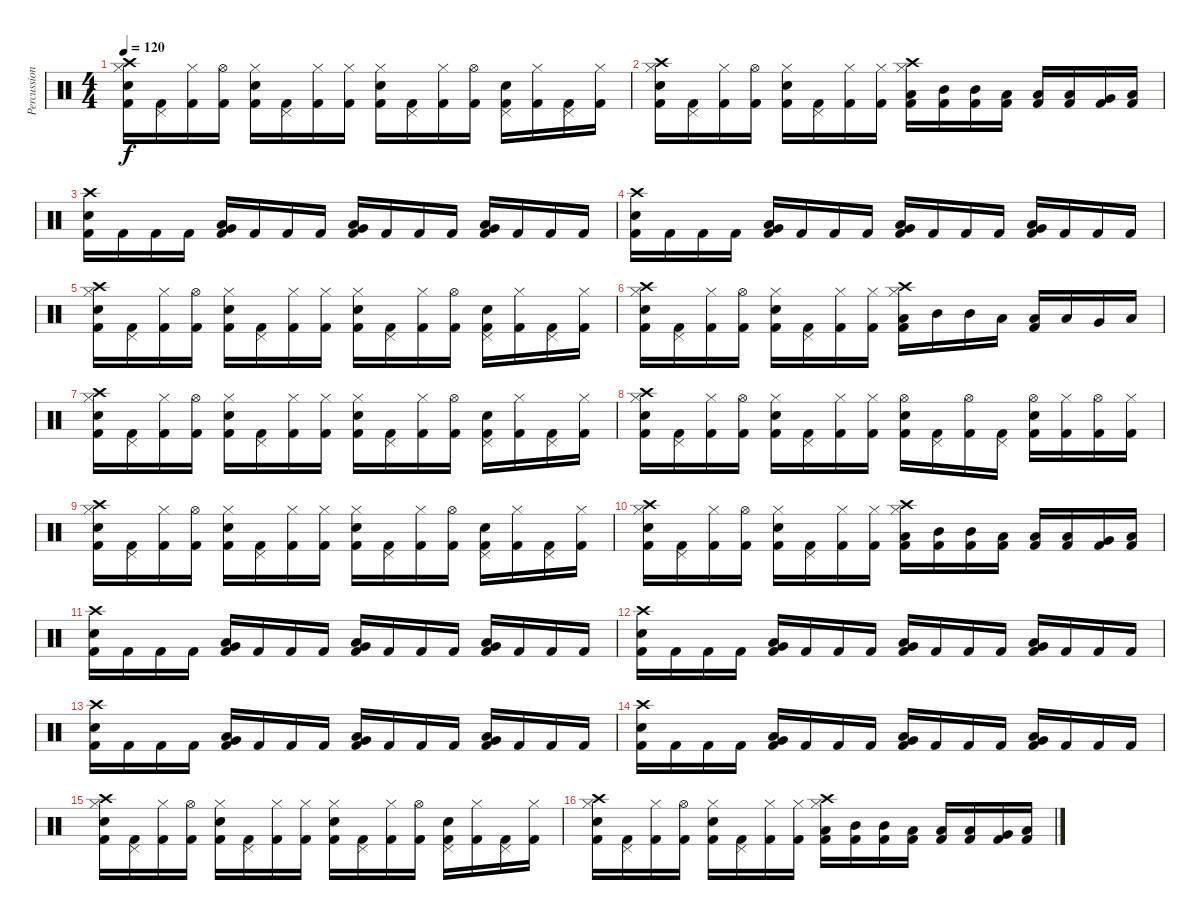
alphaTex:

\track ("Percussion" "Percussion") {instrument percussion}
\staff {score}
\articulation defaults
\ts (4 4)
\tempo 120
\clef neutral
\ks c
("Crash high (hit)" "Hi-Hat (closed)" "Snare (hit) 2" "Kick (hit) 2").16{dy f} ("Pedal Hi-Hat (hit)" "Kick (hit) 2").16 ("Hi-Hat (closed)" "Kick (hit) 2").16 ("Hi-Hat (open)" "Kick (hit) 2").16 ("Hi-Hat (closed)" "Snare (hit) 2" "Kick (hit) 2").16 ("Pedal Hi-Hat (hit)" "Kick (hit) 2").16 ("Hi-Hat (closed)" "Kick (hit) 2").16 ("Hi-Hat (closed)" "Kick (hit) 2").16 ("Hi-Hat (closed)" "Snare (hit) 2" "Kick (hit) 2").16 ("Pedal Hi-Hat (hit)" "Kick (hit) 2").16 ("Hi-Hat (closed)" "Kick (hit) 2").16 ("Hi-Hat (open)" "Kick (hit) 2").16 ("Pedal Hi-Hat (hit)" "Snare (hit) 2" "Kick (hit) 2").16 ("Hi-Hat (closed)" "Kick (hit) 2").16 ("Pedal Hi-Hat (hit)" "Kick (hit) 2").16 ("Hi-Hat (closed)" "Kick (hit) 2").16 |
("Crash high (hit)" "Hi-Hat (closed)" "Snare (hit) 2" "Kick (hit) 2").16 ("Pedal Hi-Hat (hit)" "Kick (hit) 2").16 ("Hi-Hat (closed)" "Kick (hit) 2").16 ("Hi-Hat (open)" "Kick (hit) 2").16 ("Hi-Hat (closed)" "Snare (hit) 2" "Kick (hit) 2").16 ("Pedal Hi-Hat (hit)" "Kick (hit) 2").16 ("Hi-Hat (closed)" "Kick (hit) 2").16 ("Hi-Hat (closed)" "Kick (hit) 2").16 ("Crash high (hit)" "Hi-Hat (closed)" "Low Floor Tom (hit)" "Kick (hit) 2").16 ("Mid Tom (hit)" "Kick (hit) 2").16 ("Mid Tom (hit)" "Kick (hit) 2").16 ("Low Tom (hit)" "Kick (hit) 2").16 ("Low Tom (hit)" "Kick (hit) 2").16 ("Low Floor Tom (hit)" "Kick (hit) 2").16 ("Very Low Tom (hit)" "Kick (hit) 2").16 ("Low Floor Tom (hit)" "Kick (hit) 2").16 |
("Crash high (hit)" "Snare (hit) 2" "Kick (hit) 2").16 "Kick (hit) 2".16 "Kick (hit) 2".16 "Kick (hit) 2".16 ("Low Floor Tom (hit)" "Very Low Tom (hit)" "Kick (hit) 2").16 "Kick (hit) 2".16 "Kick (hit) 2".16 "Kick (hit) 2".16 ("Low Floor Tom (hit)" "Very Low Tom (hit)" "Kick (hit) 2").16 "Kick (hit) 2".16 "Kick (hit) 2".16 "Kick (hit) 2".16 ("Low Floor Tom (hit)" "Very Low Tom (hit)" "Kick (hit) 2").16 "Kick (hit) 2".16 "Kick (hit) 2".16 "Kick (hit) 2".16 |
("Crash high (hit)" "Snare (hit) 2" "Kick (hit) 2").16 "Kick (hit) 2".16 "Kick (hit) 2".16 "Kick (hit) 2".16 ("Low Floor Tom (hit)" "Very Low Tom (hit)" "Kick (hit) 2").16 "Kick (hit) 2".16 "Kick (hit) 2".16 "Kick (hit) 2".16 ("Low Floor Tom (hit)" "Very Low Tom (hit)" "Kick (hit) 2").16 "Kick (hit) 2".16 "Kick (hit) 2".16 "Kick (hit) 2".16 ("Low Floor Tom (hit)" "Very Low Tom (hit)" "Kick (hit) 2").16 "Kick (hit) 2".16 "Kick (hit) 2".16 "Kick (hit) 2".16 |
("Crash high (hit)" "Hi-Hat (closed)" "Snare (hit) 2" "Kick (hit) 2").16 ("Pedal Hi-Hat (hit)" "Kick (hit) 2").16 ("Hi-Hat (closed)" "Kick (hit) 2").16 ("Hi-Hat (open)" "Kick (hit) 2").16 ("Hi-Hat (closed)" "Snare (hit) 2" "Kick (hit) 2").16 ("Pedal Hi-Hat (hit)" "Kick (hit) 2").16 ("Hi-Hat (closed)" "Kick (hit) 2").16 ("Hi-Hat (closed)" "Kick (hit) 2").16 ("Hi-Hat (closed)" "Snare (hit) 2" "Kick (hit) 2").16 ("Pedal Hi-Hat (hit)" "Kick (hit) 2").16 ("Hi-Hat (closed)" "Kick (hit) 2").16 ("Hi-Hat (open)" "Kick (hit) 2").16 ("Pedal Hi-Hat (hit)" "Snare (hit) 2" "Kick (hit) 2").16 ("Hi-Hat (closed)" "Kick (hit) 2").16 ("Pedal Hi-Hat (hit)" "Kick (hit) 2").16 ("Hi-Hat (closed)" "Kick (hit) 2").16 |
("Crash high (hit)" "Hi-Hat (closed)" "Snare (hit) 2" "Kick (hit) 2").16 ("Pedal Hi-Hat (hit)" "Kick (hit) 2").16 ("Hi-Hat (closed)" "Kick (hit) 2").16 ("Hi-Hat (open)" "Kick (hit) 2").16 ("Hi-Hat (closed)" "Snare (hit) 2" "Kick (hit) 2").16 ("Pedal Hi-Hat (hit)" "Kick (hit) 2").16 ("Hi-Hat (closed)" "Kick (hit) 2").16 ("Hi-Hat (closed)" "Kick (hit) 2").16 ("Crash high (hit)" "Hi-Hat (closed)" "Low Floor Tom (hit)" "Kick (hit) 2").16 "Mid Tom (hit)".16 "Mid Tom (hit)".16 "Low Tom (hit)".16 ("Low Tom (hit)" "Kick (hit) 2").16 "Low Floor Tom (hit)".16 "Very Low Tom (hit)".16 "Low Floor Tom (hit)".16 |
("Crash high (hit)" "Hi-Hat (closed)" "Snare (hit) 2" "Kick (hit) 2").16 ("Pedal Hi-Hat (hit)" "Kick (hit) 2").16 ("Hi-Hat (closed)" "Kick (hit) 2").16 ("Hi-Hat (open)" "Kick (hit) 2").16 ("Hi-Hat (closed)" "Snare (hit) 2" "Kick (hit) 2").16 ("Pedal Hi-Hat (hit)" "Kick (hit) 2").16 ("Hi-Hat (closed)" "Kick (hit) 2").16 ("Hi-Hat (closed)" "Kick (hit) 2").16 ("Hi-Hat (closed)" "Snare (hit) 2" "Kick (hit) 2").16 ("Pedal Hi-Hat (hit)" "Kick (hit) 2").16 ("Hi-Hat (closed)" "Kick (hit) 2").16 ("Hi-Hat (open)" "Kick (hit) 2").16 ("Pedal Hi-Hat (hit)" "Snare (hit) 2" "Kick (hit) 2").16 ("Hi-Hat (closed)" "Kick (hit) 2").16 ("Pedal Hi-Hat (hit)" "Kick (hit) 2").16 ("Hi-Hat (closed)" "Kick (hit) 2").16 |
("Crash high (hit)" "Hi-Hat (closed)" "Snare (hit) 2" "Kick (hit) 2").16 ("Pedal Hi-Hat (hit)" "Kick (hit) 2").16 ("Hi-Hat (closed)" "Kick (hit) 2").16 ("Hi-Hat (open)" "Kick (hit) 2").16 ("Hi-Hat (closed)" "Snare (hit) 2" "Kick (hit) 2").16 ("Pedal Hi-Hat (hit)" "Kick (hit) 2").16 ("Hi-Hat (closed)" "Kick (hit) 2").16 ("Hi-Hat (closed)" "Kick (hit) 2").16 ("Hi-Hat (open)" "Snare (hit) 2" "Kick (hit) 2").16 ("Pedal Hi-Hat (hit)" "Kick (hit) 2").16 ("Hi-Hat (open)" "Kick (hit) 2").16 ("Pedal Hi-Hat (hit)" "Kick (hit) 2").16 ("Hi-Hat (open)" "Snare (hit) 2" "Kick (hit) 2").16 ("Hi-Hat (closed)" "Kick (hit) 2").16 ("Hi-Hat (open)" "Kick (hit) 2").16 ("Hi-Hat (closed)" "Kick (hit) 2").16 |
("Crash high (hit)" "Hi-Hat (closed)" "Snare (hit) 2" "Kick (hit) 2").16 ("Pedal Hi-Hat (hit)" "Kick (hit) 2").16 ("Hi-Hat (closed)" "Kick (hit) 2").16 ("Hi-Hat (open)" "Kick (hit) 2").16 ("Hi-Hat (closed)" "Snare (hit) 2" "Kick (hit) 2").16 ("Pedal Hi-Hat (hit)" "Kick (hit) 2").16 ("Hi-Hat (closed)" "Kick (hit) 2").16 ("Hi-Hat (closed)" "Kick (hit) 2").16 ("Hi-Hat (closed)" "Snare (hit) 2" "Kick (hit) 2").16 ("Pedal Hi-Hat (hit)" "Kick (hit) 2").16 ("Hi-Hat (closed)" "Kick (hit) 2").16 ("Hi-Hat (open)" "Kick (hit) 2").16 ("Pedal Hi-Hat (hit)" "Snare (hit) 2" "Kick (hit) 2").16 ("Hi-Hat (closed)" "Kick (hit) 2").16 ("Pedal Hi-Hat (hit)" "Kick (hit) 2").16 ("Hi-Hat (closed)" "Kick (hit) 2").16 |
("Crash high (hit)" "Hi-Hat (closed)" "Snare (hit) 2" "Kick (hit) 2").16 ("Pedal Hi-Hat (hit)" "Kick (hit) 2").16 ("Hi-Hat (closed)" "Kick (hit) 2").16 ("Hi-Hat (open)" "Kick (hit) 2").16 ("Hi-Hat (closed)" "Snare (hit) 2" "Kick (hit) 2").16 ("Pedal Hi-Hat (hit)" "Kick (hit) 2").16 ("Hi-Hat (closed)" "Kick (hit) 2").16 ("Hi-Hat (closed)" "Kick (hit) 2").16 ("Crash high (hit)" "Hi-Hat (closed)" "Low Floor Tom (hit)" "Kick (hit) 2").16 ("Mid Tom (hit)" "Kick (hit) 2").16 ("Mid Tom (hit)" "Kick (hit) 2").16 ("Low Tom (hit)" "Kick (hit) 2").16 ("Low Tom (hit)" "Kick (hit) 2").16 ("Low Floor Tom (hit)" "Kick (hit) 2").16 ("Very Low Tom (hit)" "Kick (hit) 2").16 ("Low Floor Tom (hit)" "Kick (hit) 2").16 |
("Crash high (hit)" "Snare (hit) 2" "Kick (hit) 2").16 "Kick (hit) 2".16 "Kick (hit) 2".16 "Kick (hit) 2".16 ("Low Floor Tom (hit)" "Very Low Tom (hit)" "Kick (hit) 2").16 "Kick (hit) 2".16 "Kick (hit) 2".16 "Kick (hit) 2".16 ("Low Floor Tom (hit)" "Very Low Tom (hit)" "Kick (hit) 2").16 "Kick (hit) 2".16 "Kick (hit) 2".16 "Kick (hit) 2".16 ("Low Floor Tom (hit)" "Very Low Tom (hit)" "Kick (hit) 2").16 "Kick (hit) 2".16 "Kick (hit) 2".16 "Kick (hit) 2".16 |
("Crash high (hit)" "Snare (hit) 2" "Kick (hit) 2").16 "Kick (hit) 2".16 "Kick (hit) 2".16 "Kick (hit) 2".16 ("Low Floor Tom (hit)" "Very Low Tom (hit)" "Kick (hit) 2").16 "Kick (hit) 2".16 "Kick (hit) 2".16 "Kick (hit) 2".16 ("Low Floor Tom (hit)" "Very Low Tom (hit)" "Kick (hit) 2").16 "Kick (hit) 2".16 "Kick (hit) 2".16 "Kick (hit) 2".16 ("Low Floor Tom (hit)" "Very Low Tom (hit)" "Kick (hit) 2").16 "Kick (hit) 2".16 "Kick (hit) 2".16 "Kick (hit) 2".16 |
("Crash high (hit)" "Snare (hit) 2" "Kick (hit) 2").16 "Kick (hit) 2".16 "Kick (hit) 2".16 "Kick (hit) 2".16 ("Low Floor Tom (hit)" "Very Low Tom (hit)" "Kick (hit) 2").16 "Kick (hit) 2".16 "Kick (hit) 2".16 "Kick (hit) 2".16 ("Low Floor Tom (hit)" "Very Low Tom (hit)" "Kick (hit) 2").16 "Kick (hit) 2".16 "Kick (hit) 2".16 "Kick (hit) 2".16 ("Low Floor Tom (hit)" "Very Low Tom (hit)" "Kick (hit) 2").16 "Kick (hit) 2".16 "Kick (hit) 2".16 "Kick (hit) 2".16 |
("Crash high (hit)" "Snare (hit) 2" "Kick (hit) 2").16 "Kick (hit) 2".16 "Kick (hit) 2".16 "Kick (hit) 2".16 ("Low Floor Tom (hit)" "Very Low Tom (hit)" "Kick (hit) 2").16 "Kick (hit) 2".16 "Kick (hit) 2".16 "Kick (hit) 2".16 ("Low Floor Tom (hit)" "Very Low Tom (hit)" "Kick (hit) 2").16 "Kick (hit) 2".16 "Kick (hit) 2".16 "Kick (hit) 2".16 ("Low Floor Tom (hit)" "Very Low Tom (hit)" "Kick (hit) 2").16 "Kick (hit) 2".16 "Kick (hit) 2".16 "Kick (hit) 2".16 |
("Crash high (hit)" "Hi-Hat (closed)" "Snare (hit) 2" "Kick (hit) 2").16 ("Pedal Hi-Hat (hit)" "Kick (hit) 2").16 ("Hi-Hat (closed)" "Kick (hit) 2").16 ("Hi-Hat (open)" "Kick (hit) 2").16 ("Hi-Hat (closed)" "Snare (hit) 2" "Kick (hit) 2").16 ("Pedal Hi-Hat (hit)" "Kick (hit) 2").16 ("Hi-Hat (closed)" "Kick (hit) 2").16 ("Hi-Hat (closed)" "Kick (hit) 2").16 ("Hi-Hat (closed)" "Snare (hit) 2" "Kick (hit) 2").16 ("Pedal Hi-Hat (hit)" "Kick (hit) 2").16 ("Hi-Hat (closed)" "Kick (hit) 2").16 ("Hi-Hat (open)" "Kick (hit) 2").16 ("Pedal Hi-Hat (hit)" "Snare (hit) 2" "Kick (hit) 2").16 ("Hi-Hat (closed)" "Kick (hit) 2").16 ("Pedal Hi-Hat (hit)" "Kick (hit) 2").16 ("Hi-Hat (closed)" "Kick (hit) 2").16 |
("Crash high (hit)" "Hi-Hat (closed)" "Snare (hit) 2" "Kick (hit) 2").16 ("Pedal Hi-Hat (hit)" "Kick (hit) 2").16 ("Hi-Hat (closed)" "Kick (hit) 2").16 ("Hi-Hat (open)" "Kick (hit) 2").16 ("Hi-Hat (closed)" "Snare (hit) 2" "Kick (hit) 2").16 ("Pedal Hi-Hat (hit)" "Kick (hit) 2").16 ("Hi-Hat (closed)" "Kick (hit) 2").16 ("Hi-Hat (closed)" "Kick (hit) 2").16 ("Crash high (hit)" "Hi-Hat (closed)" "Low Floor Tom (hit)" "Kick (hit) 2").16 ("Mid Tom (hit)" "Kick (hit) 2").16 ("Mid Tom (hit)" "Kick (hit) 2").16 ("Low Tom (hit)" "Kick (hit) 2").16 ("Low Tom (hit)" "Kick (hit) 2").16 ("Low Floor Tom (hit)" "Kick (hit) 2").16 ("Very Low Tom (hit)" "Kick (hit) 2").16 ("Low Floor Tom (hit)" "Kick (hit) 2").16
